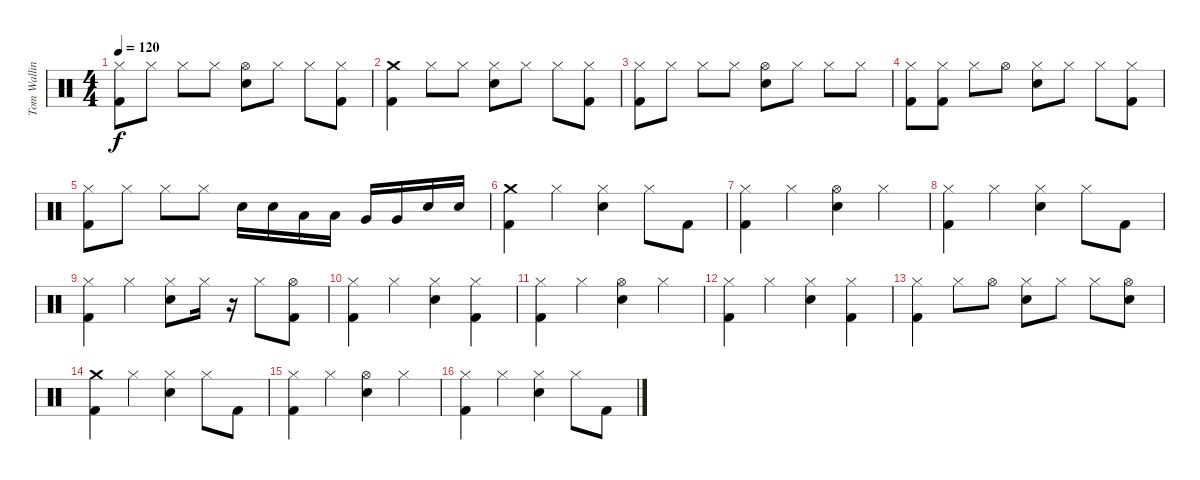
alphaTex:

\track ("Tom Walling (Drums)" "Tom Wallin") {instrument percussion}
\staff {score}
\articulation defaults
\ts (4 4)
\tempo 120
\clef neutral
\ks c
("Hi-Hat (closed)" "Kick (hit) 2").8{dy f} "Hi-Hat (closed)".8 "Hi-Hat (closed)".8 "Hi-Hat (closed)".8 ("Hi-Hat (open)" "Electric Snare (hit)").8 "Hi-Hat (closed)".8 "Hi-Hat (closed)".8 ("Hi-Hat (closed)" "Kick (hit) 2").8 |
("Crash medium (hit)" "Kick (hit) 2").4 "Hi-Hat (closed)".8 "Hi-Hat (closed)".8 ("Hi-Hat (closed)" "Electric Snare (hit)").8 "Hi-Hat (closed)".8 "Hi-Hat (closed)".8 ("Hi-Hat (closed)" "Kick (hit) 2").8 |
("Hi-Hat (closed)" "Kick (hit) 2").8 "Hi-Hat (closed)".8 "Hi-Hat (closed)".8 "Hi-Hat (closed)".8 ("Hi-Hat (open)" "Electric Snare (hit)").8 "Hi-Hat (closed)".8 "Hi-Hat (closed)".8 "Hi-Hat (closed)".8 |
("Hi-Hat (closed)" "Kick (hit) 2").8 ("Hi-Hat (closed)" "Kick (hit) 2").8 "Hi-Hat (closed)".8 "Hi-Hat (open)".8 ("Hi-Hat (closed)" "Electric Snare (hit)").8 "Hi-Hat (closed)".8 "Hi-Hat (closed)".8 ("Hi-Hat (closed)" "Kick (hit) 2").8 |
("Hi-Hat (closed)" "Kick (hit) 2").8 "Hi-Hat (closed)".8 "Hi-Hat (closed)".8 "Hi-Hat (closed)".8 "Electric Snare (hit)".16 "Electric Snare (hit)".16 "Low Tom (hit)".16 "Low Tom (hit)".16 "Very Low Tom (hit)".16 "Very Low Tom (hit)".16 "Electric Snare (hit)".16 "Electric Snare (hit)".16 |
("Crash medium (hit)" "Kick (hit) 2").4 "Hi-Hat (closed)".4 ("Hi-Hat (closed)" "Electric Snare (hit)").4 "Hi-Hat (closed)".8 "Kick (hit) 2".8 |
("Hi-Hat (closed)" "Kick (hit) 2").4 "Hi-Hat (closed)".4 ("Hi-Hat (open)" "Electric Snare (hit)").4 "Hi-Hat (closed)".4 |
("Hi-Hat (closed)" "Kick (hit) 2").4 "Hi-Hat (closed)".4 ("Hi-Hat (closed)" "Electric Snare (hit)").4 "Hi-Hat (closed)".8 "Kick (hit) 2".8 |
("Hi-Hat (closed)" "Kick (hit) 2").4 "Hi-Hat (closed)".4 ("Hi-Hat (closed)" "Electric Snare (hit)").8 "Hi-Hat (closed)".16 r.16 "Hi-Hat (closed)".8 ("Hi-Hat (open)" "Kick (hit) 2").8 |
("Hi-Hat (closed)" "Kick (hit) 2").4 "Hi-Hat (closed)".4 ("Hi-Hat (closed)" "Electric Snare (hit)").4 ("Hi-Hat (closed)" "Kick (hit) 2").4 |
("Hi-Hat (closed)" "Kick (hit) 2").4 "Hi-Hat (closed)".4 ("Hi-Hat (open)" "Electric Snare (hit)").4 "Hi-Hat (closed)".4 |
("Hi-Hat (closed)" "Kick (hit) 2").4 "Hi-Hat (closed)".4 ("Hi-Hat (closed)" "Electric Snare (hit)").4 ("Hi-Hat (closed)" "Kick (hit) 2").4 |
("Hi-Hat (closed)" "Kick (hit) 2").4 "Hi-Hat (closed)".8 "Hi-Hat (open)".8 ("Hi-Hat (closed)" "Electric Snare (hit)").8 "Hi-Hat (closed)".8 "Hi-Hat (closed)".8 ("Hi-Hat (open)" "Electric Snare (hit)").8 |
("Crash medium (hit)" "Kick (hit) 2").4 "Hi-Hat (closed)".4 ("Hi-Hat (closed)" "Electric Snare (hit)").4 "Hi-Hat (closed)".8 "Kick (hit) 2".8 |
("Hi-Hat (closed)" "Kick (hit) 2").4 "Hi-Hat (closed)".4 ("Hi-Hat (open)" "Electric Snare (hit)").4 "Hi-Hat (closed)".4 |
("Hi-Hat (closed)" "Kick (hit) 2").4 "Hi-Hat (closed)".4 ("Hi-Hat (closed)" "Electric Snare (hit)").4 "Hi-Hat (closed)".8 "Kick (hit) 2".8
